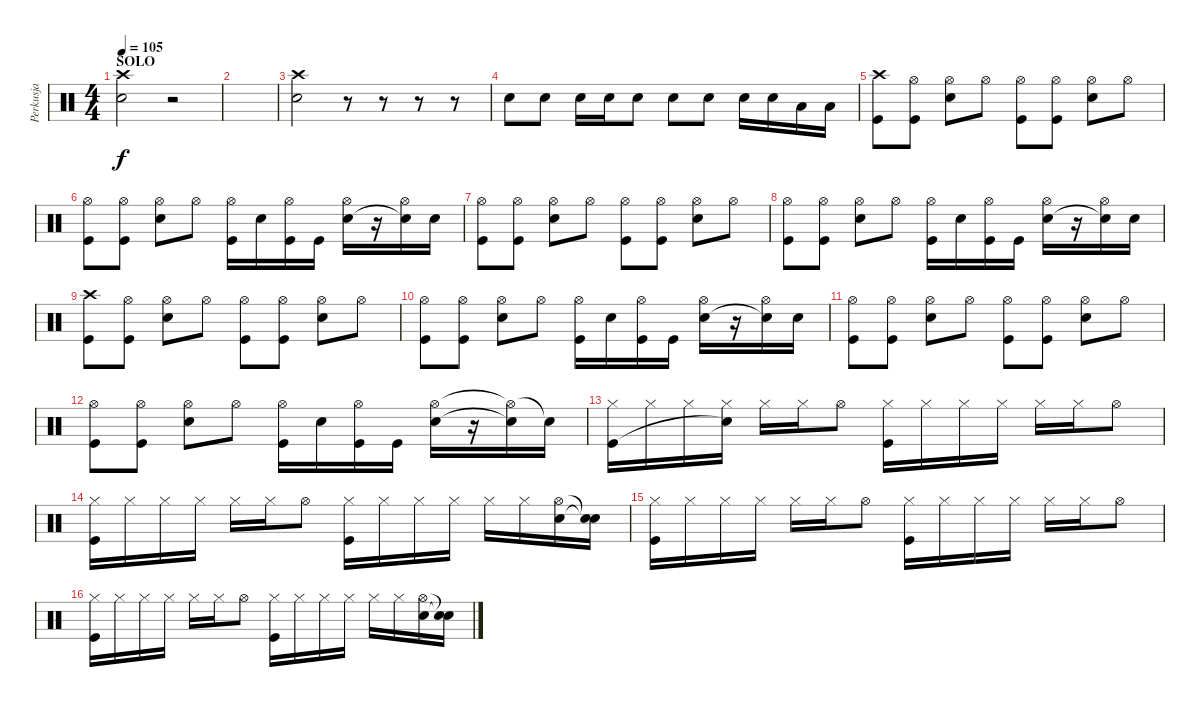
\track ("Perkusja" "Perkusja") {instrument percussion}
\staff {score}
\articulation defaults
\ts (4 4)
\section ("" "SOLO")
\tempo 105
\clef neutral
\ks c
("Crash high (hit)" "Snare (hit) 2").2{dy f} r.2 |
|
("Crash high (hit)" "Snare (hit) 2").2 r.8 r.8 r.8 r.8 |
"Snare (hit) 2".8 "Snare (hit) 2".8 "Snare (hit) 2".16 "Snare (hit) 2".16 "Snare (hit) 2".8 "Snare (hit) 2".8 "Snare (hit) 2".8 "Snare (hit) 2".16 "Snare (hit) 2".16 "Low Tom (hit)".16 "Low Tom (hit)".16 |
("Crash high (hit)" "Kick (hit)").8 ("Hi-Hat (open)" "Kick (hit)").8 ("Hi-Hat (open)" "Snare (hit) 2").8 "Hi-Hat (open)".8 ("Hi-Hat (open)" "Kick (hit)").8 ("Hi-Hat (open)" "Kick (hit)").8 ("Hi-Hat (open)" "Snare (hit) 2").8 "Hi-Hat (open)".8 |
("Hi-Hat (open)" "Kick (hit)").8 ("Hi-Hat (open)" "Kick (hit)").8 ("Hi-Hat (open)" "Snare (hit) 2").8 "Hi-Hat (open)".8 ("Hi-Hat (open)" "Kick (hit)").16 "Snare (hit) 2".16 ("Hi-Hat (open)" "Kick (hit)").16 "Kick (hit)".16 ("Hi-Hat (open)" "Snare (hit) 2").16 r.16 ("Hi-Hat (open)" "Snare (hit)"{t}).16 "Snare (hit) 2".16 |
("Hi-Hat (open)" "Kick (hit)").8 ("Hi-Hat (open)" "Kick (hit)").8 ("Hi-Hat (open)" "Snare (hit) 2").8 "Hi-Hat (open)".8 ("Hi-Hat (open)" "Kick (hit)").8 ("Hi-Hat (open)" "Kick (hit)").8 ("Hi-Hat (open)" "Snare (hit) 2").8 "Hi-Hat (open)".8 |
("Hi-Hat (open)" "Kick (hit)").8 ("Hi-Hat (open)" "Kick (hit)").8 ("Hi-Hat (open)" "Snare (hit) 2").8 "Hi-Hat (open)".8 ("Hi-Hat (open)" "Kick (hit)").16 "Snare (hit) 2".16 ("Hi-Hat (open)" "Kick (hit)").16 "Kick (hit)".16 ("Hi-Hat (open)" "Snare (hit) 2").16 r.16 ("Hi-Hat (open)" "Snare (hit)"{t}).16 "Snare (hit) 2".16 |
("Crash high (hit)" "Kick (hit)").8 ("Hi-Hat (open)" "Kick (hit)").8 ("Hi-Hat (open)" "Snare (hit) 2").8 "Hi-Hat (open)".8 ("Hi-Hat (open)" "Kick (hit)").8 ("Hi-Hat (open)" "Kick (hit)").8 ("Hi-Hat (open)" "Snare (hit) 2").8 "Hi-Hat (open)".8 |
("Hi-Hat (open)" "Kick (hit)").8 ("Hi-Hat (open)" "Kick (hit)").8 ("Hi-Hat (open)" "Snare (hit) 2").8 "Hi-Hat (open)".8 ("Hi-Hat (open)" "Kick (hit)").16 "Snare (hit) 2".16 ("Hi-Hat (open)" "Kick (hit)").16 "Kick (hit)".16 ("Hi-Hat (open)" "Snare (hit) 2").16 r.16 ("Hi-Hat (open)" "Snare (hit)"{t}).16 "Snare (hit) 2".16 |
("Hi-Hat (open)" "Kick (hit)").8 ("Hi-Hat (open)" "Kick (hit)").8 ("Hi-Hat (open)" "Snare (hit) 2").8 "Hi-Hat (open)".8 ("Hi-Hat (open)" "Kick (hit)").8 ("Hi-Hat (open)" "Kick (hit)").8 ("Hi-Hat (open)" "Snare (hit) 2").8 "Hi-Hat (open)".8 |
("Hi-Hat (open)" "Kick (hit)").8 ("Hi-Hat (open)" "Kick (hit)").8 ("Hi-Hat (open)" "Snare (hit) 2").8 "Hi-Hat (open)".8 ("Hi-Hat (open)" "Kick (hit)").16 "Snare (hit) 2".16 ("Hi-Hat (open)" "Kick (hit)").16 "Kick (hit)".16 ("Hi-Hat (open)" "Snare (hit) 2").16 r.16 ("Hi-Hat (open)"{t} "Snare (hit)"{t}).16 "Snare (hit) 2"{t}.16 |
("Hi-Hat (closed)" "Kick (hit)").16 "Hi-Hat (closed)".16 "Hi-Hat (closed)".16 ("Hi-Hat (closed)" "Snare (hit)"{t}).16 "Hi-Hat (closed)".16 "Hi-Hat (closed)".16 "Hi-Hat (open)".8 ("Hi-Hat (closed)" "Kick (hit)").16 "Hi-Hat (closed)".16 "Hi-Hat (closed)".16 "Hi-Hat (closed)".16 "Hi-Hat (closed)".16 "Hi-Hat (closed)".16 "Hi-Hat (open)".8 |
("Hi-Hat (closed)" "Kick (hit)").16 "Hi-Hat (closed)".16 "Hi-Hat (closed)".16 "Hi-Hat (closed)".16 "Hi-Hat (closed)".16 "Hi-Hat (closed)".16 "Hi-Hat (open)".8 ("Hi-Hat (closed)" "Kick (hit)").16 "Hi-Hat (closed)".16 "Hi-Hat (closed)".16 "Hi-Hat (closed)".16 "Hi-Hat (closed)".16 "Hi-Hat (closed)".16 ("Hi-Hat (open)" "Snare (hit) 2").16 ("Snare (hit)"{t} "Snare (hit) 2"{t}).16 |
("Hi-Hat (closed)" "Kick (hit)").16 "Hi-Hat (closed)".16 "Hi-Hat (closed)".16 "Hi-Hat (closed)".16 "Hi-Hat (closed)".16 "Hi-Hat (closed)".16 "Hi-Hat (open)".8 ("Hi-Hat (closed)" "Kick (hit)").16 "Hi-Hat (closed)".16 "Hi-Hat (closed)".16 "Hi-Hat (closed)".16 "Hi-Hat (closed)".16 "Hi-Hat (closed)".16 "Hi-Hat (open)".8 |
("Hi-Hat (closed)" "Kick (hit)").16 "Hi-Hat (closed)".16 "Hi-Hat (closed)".16 "Hi-Hat (closed)".16 "Hi-Hat (closed)".16 "Hi-Hat (closed)".16 "Hi-Hat (open)".8 ("Hi-Hat (closed)" "Kick (hit)").16 "Hi-Hat (closed)".16 "Hi-Hat (closed)".16 "Hi-Hat (closed)".16 "Hi-Hat (closed)".16 "Hi-Hat (closed)".16 ("Hi-Hat (open)" "Snare (hit) 2").16 ("Snare (hit)"{t} "Snare (hit) 2"{t}).16
